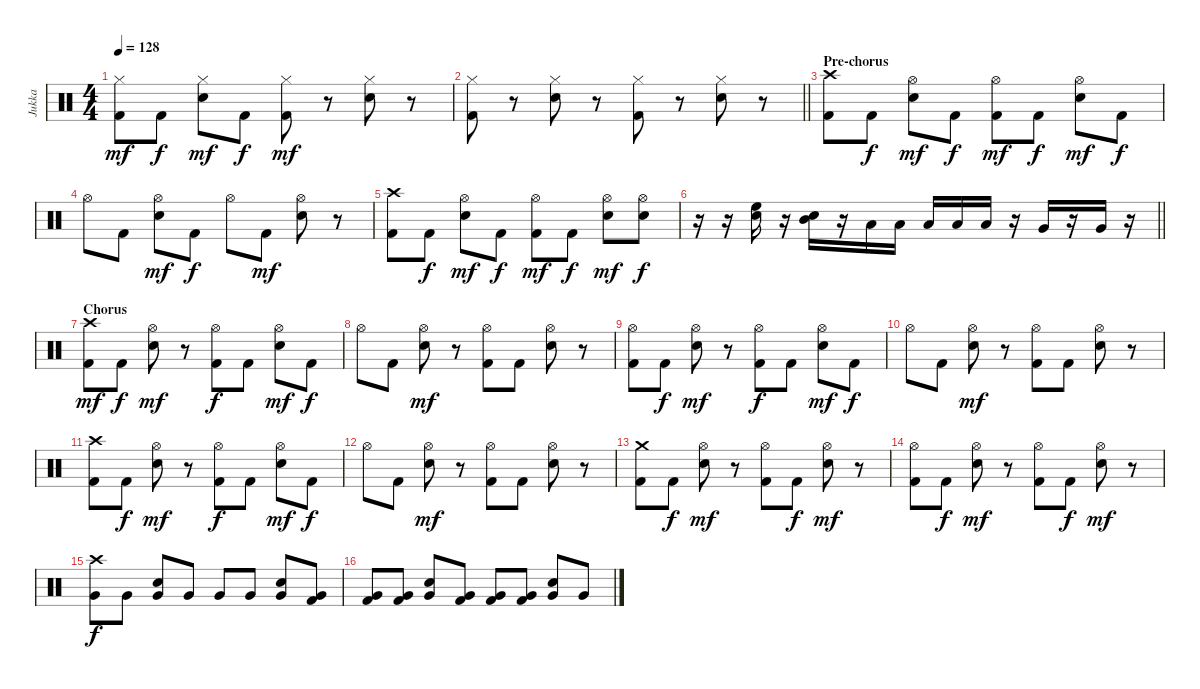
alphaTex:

\track ("Jukka" "Jukka") {instrument percussion}
\staff {score}
\articulation defaults
\ts (4 4)
\tempo 128
\clef neutral
\ks c
("Kick (hit) 2" "Hi-Hat (closed)").8{dy mf} "Kick (hit) 2".8{dy f} ("Electric Snare (hit)" "Hi-Hat (closed)").8{dy mf} "Kick (hit) 2".8{dy f} ("Kick (hit) 2" "Hi-Hat (closed)").8{dy mf} r.8 ("Electric Snare (hit)" "Hi-Hat (closed)").8 r.8 |
\barLineRight lightlight
("Kick (hit) 2" "Hi-Hat (closed)").8 r.8 ("Electric Snare (hit)" "Hi-Hat (closed)").8 r.8 ("Kick (hit) 2" "Hi-Hat (closed)").8 r.8 ("Electric Snare (hit)" "Hi-Hat (closed)").8 r.8 |
\section ("" "Pre-chorus")
("Kick (hit) 2" "Crash high (hit)").8 "Kick (hit) 2".8{dy f} ("Electric Snare (hit)" "Hi-Hat (open)").8{dy mf} "Kick (hit) 2".8{dy f} ("Kick (hit) 2" "Hi-Hat (open)").8{dy mf} "Kick (hit) 2".8{dy f} ("Electric Snare (hit)" "Hi-Hat (open)").8{dy mf} "Kick (hit) 2".8{dy f} |
"Hi-Hat (open)".8 "Kick (hit) 2".8 ("Electric Snare (hit)" "Hi-Hat (open)").8{dy mf} "Kick (hit) 2".8{dy f} "Hi-Hat (open)".8 "Kick (hit) 2".8{dy mf} ("Electric Snare (hit)" "Hi-Hat (open)").8 r.8 |
("Kick (hit) 2" "Crash high (hit)").8 "Kick (hit) 2".8{dy f} ("Electric Snare (hit)" "Hi-Hat (open)").8{dy mf} "Kick (hit) 2".8{dy f} ("Kick (hit) 2" "Hi-Hat (open)").8{dy mf} "Kick (hit) 2".8{dy f} ("Electric Snare (hit)" "Hi-Hat (open)").8{dy mf} ("Electric Snare (hit)" "Hi-Hat (open)").8{dy f} |
\barLineRight lightlight
r.16 r.16 ("Electric Snare (hit)" "High Floor Tom (hit)").16 r.16 ("Electric Snare (hit)" "Mid Tom (hit)").16 r.16 "Low Tom (hit)".16 "Low Tom (hit)".16 "Low Tom (hit)".16 "Low Tom (hit)".16 "Low Tom (hit)".16 r.16 "Very Low Tom (hit)".16 r.16 "Very Low Tom (hit)".16 r.16 |
\section ("" "Chorus")
("Kick (hit) 2" "Crash high (hit)").8{dy mf} "Kick (hit) 2".8{dy f} ("Electric Snare (hit)" "Hi-Hat (open)").8{dy mf} r.8 ("Kick (hit) 2" "Hi-Hat (open)").8{dy f} "Kick (hit) 2".8 ("Electric Snare (hit)" "Hi-Hat (open)").8{dy mf} "Kick (hit) 2".8{dy f} |
"Hi-Hat (open)".8 "Kick (hit) 2".8 ("Electric Snare (hit)" "Hi-Hat (open)").8{dy mf} r.8 ("Kick (hit) 2" "Hi-Hat (open)").8 "Kick (hit) 2".8 ("Electric Snare (hit)" "Hi-Hat (open)").8 r.8 |
("Kick (hit) 2" "Hi-Hat (open)").8 "Kick (hit) 2".8{dy f} ("Electric Snare (hit)" "Hi-Hat (open)").8{dy mf} r.8 ("Kick (hit) 2" "Hi-Hat (open)").8{dy f} "Kick (hit) 2".8 ("Electric Snare (hit)" "Hi-Hat (open)").8{dy mf} "Kick (hit) 2".8{dy f} |
"Hi-Hat (open)".8 "Kick (hit) 2".8 ("Electric Snare (hit)" "Hi-Hat (open)").8{dy mf} r.8 ("Kick (hit) 2" "Hi-Hat (open)").8 "Kick (hit) 2".8 ("Electric Snare (hit)" "Hi-Hat (open)").8 r.8 |
("Kick (hit) 2" "Crash high (hit)").8 "Kick (hit) 2".8{dy f} ("Electric Snare (hit)" "Hi-Hat (open)").8{dy mf} r.8 ("Kick (hit) 2" "Hi-Hat (open)").8{dy f} "Kick (hit) 2".8 ("Electric Snare (hit)" "Hi-Hat (open)").8{dy mf} "Kick (hit) 2".8{dy f} |
"Hi-Hat (open)".8 "Kick (hit) 2".8 ("Electric Snare (hit)" "Hi-Hat (open)").8{dy mf} r.8 ("Kick (hit) 2" "Hi-Hat (open)").8 "Kick (hit) 2".8 ("Electric Snare (hit)" "Hi-Hat (open)").8 r.8 |
("Kick (hit) 2" "Crash medium (hit)").8 "Kick (hit) 2".8{dy f} ("Electric Snare (hit)" "Hi-Hat (open)").8{dy mf} r.8 ("Kick (hit) 2" "Hi-Hat (open)").8 "Kick (hit) 2".8{dy f} ("Electric Snare (hit)" "Hi-Hat (open)").8{dy mf} r.8 |
("Kick (hit) 2" "Hi-Hat (open)").8 "Kick (hit) 2".8{dy f} ("Electric Snare (hit)" "Hi-Hat (open)").8{dy mf} r.8 ("Kick (hit) 2" "Hi-Hat (open)").8 "Kick (hit) 2".8{dy f} ("Electric Snare (hit)" "Hi-Hat (open)").8{dy mf} r.8 |
("Crash high (hit)" "Very Low Tom (hit)").8{dy f} "Very Low Tom (hit)".8 ("Electric Snare (hit)" "Very Low Tom (hit)").8 "Very Low Tom (hit)".8 "Very Low Tom (hit)".8 "Very Low Tom (hit)".8 ("Electric Snare (hit)" "Very Low Tom (hit)").8 ("Very Low Tom (hit)" "Kick (hit) 2").8 |
("Very Low Tom (hit)" "Kick (hit) 2").8 ("Very Low Tom (hit)" "Kick (hit) 2").8 ("Electric Snare (hit)" "Very Low Tom (hit)").8 ("Very Low Tom (hit)" "Kick (hit) 2").8 ("Very Low Tom (hit)" "Kick (hit) 2").8 ("Very Low Tom (hit)" "Kick (hit) 2").8 ("Electric Snare (hit)" "Very Low Tom (hit)").8 "Very Low Tom (hit)".8
